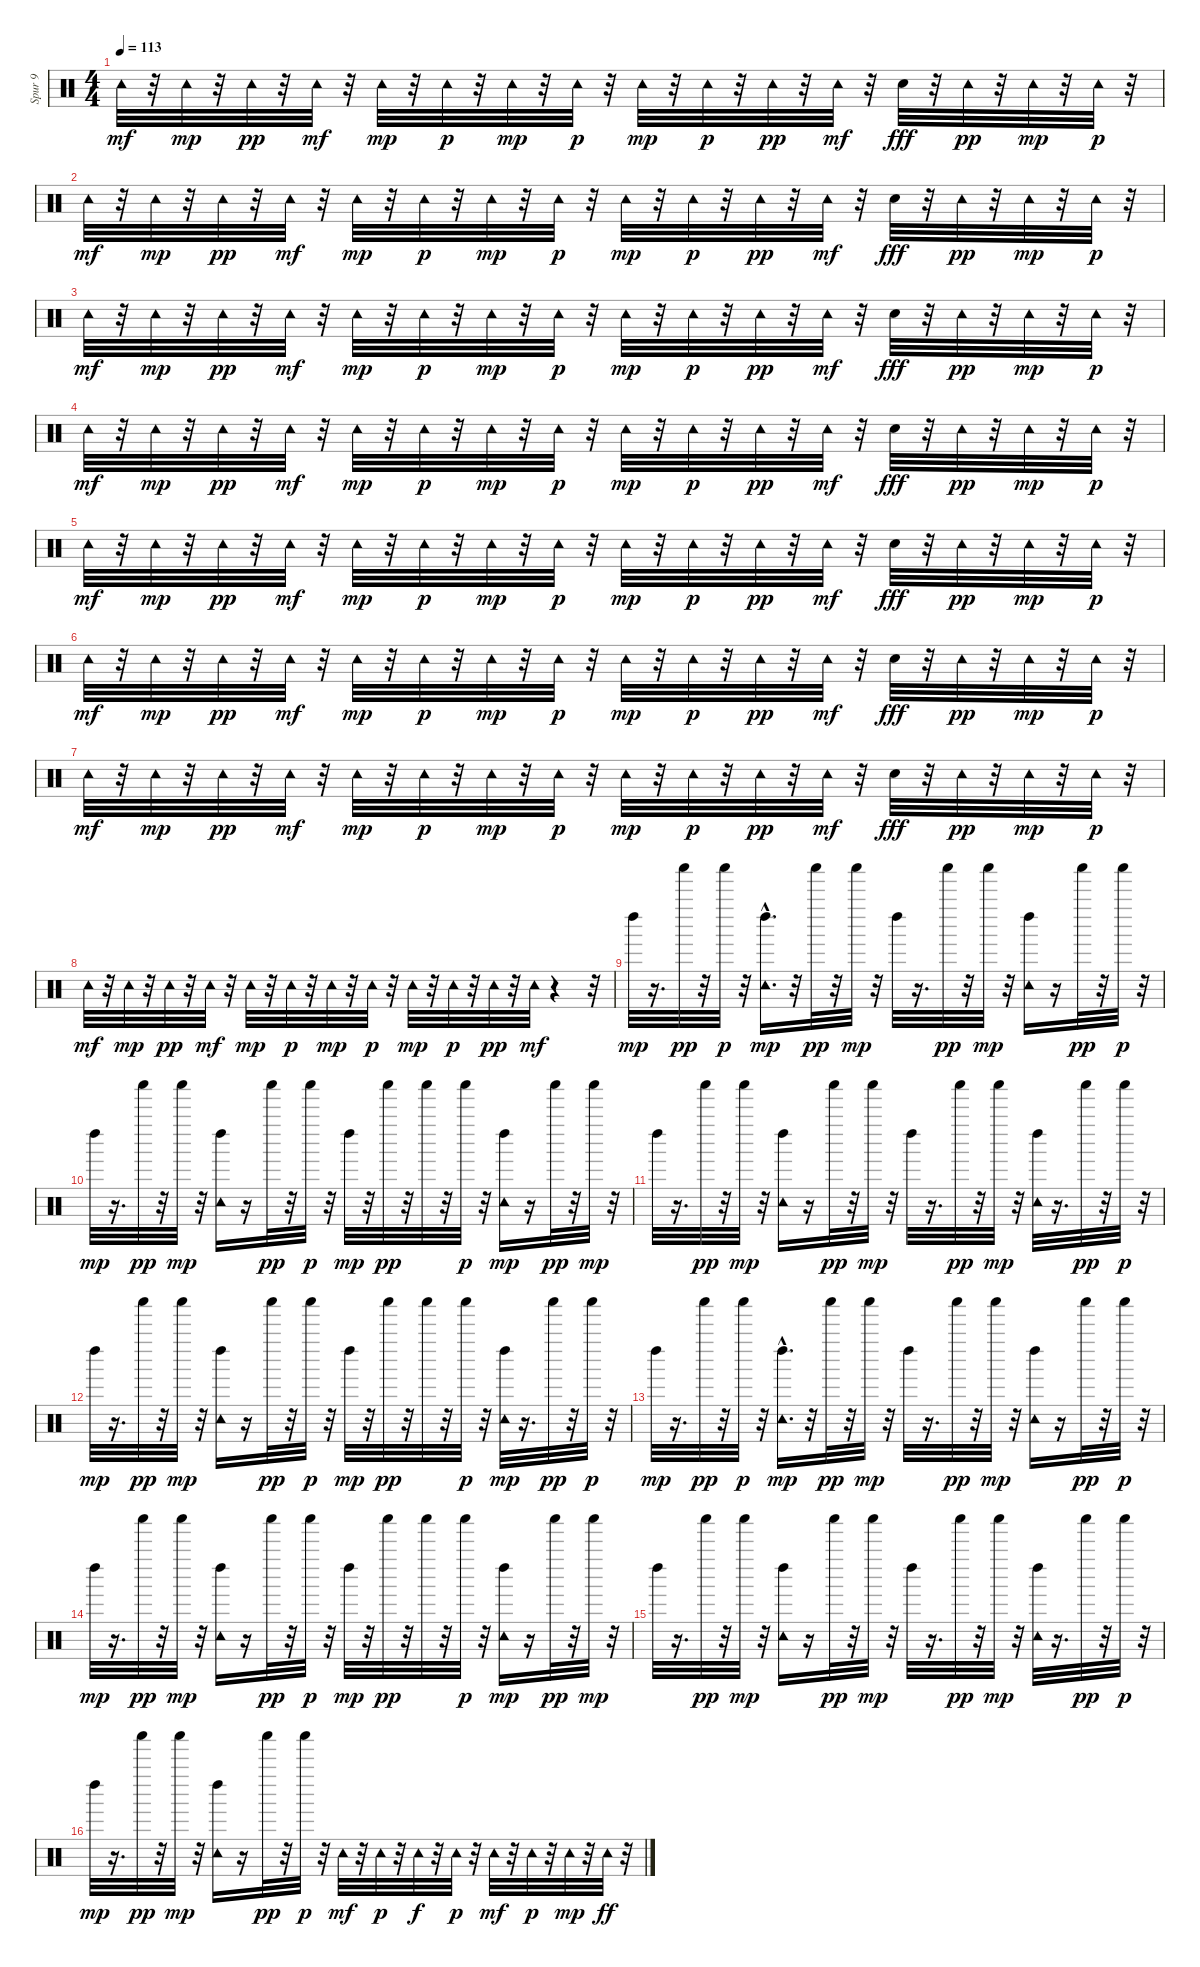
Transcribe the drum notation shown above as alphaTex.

\track ("Spur 9" "Spur 9") {instrument percussion}
\staff {score}
\articulation defaults
\ts (4 4)
\tempo 113
\clef neutral
\ks c "Tambourine (hit)".32{dy mf}
r.32 "Tambourine (hit)".32{dy mp} r.32 "Tambourine (hit)".32{dy pp} r.32 "Tambourine (hit)".32{dy mf} r.32 "Tambourine (hit)".32{dy mp} r.32 "Tambourine (hit)".32{dy p} r.32 "Tambourine (hit)".32{dy mp} r.32 "Tambourine (hit)".32{dy p} r.32 "Tambourine (hit)".32{dy mp} r.32 "Tambourine (hit)".32{dy p} r.32 "Tambourine (hit)".32{dy pp} r.32 "Tambourine (hit)".32{dy mf} r.32 "Hand Clap (hit)".32{dy fff} r.32 "Tambourine (hit)".32{dy pp} r.32 "Tambourine (hit)".32{dy mp} r.32 "Tambourine (hit)".32{dy p} r.32 |
"Tambourine (hit)".32{dy mf} r.32 "Tambourine (hit)".32{dy mp} r.32 "Tambourine (hit)".32{dy pp} r.32 "Tambourine (hit)".32{dy mf} r.32 "Tambourine (hit)".32{dy mp} r.32 "Tambourine (hit)".32{dy p} r.32 "Tambourine (hit)".32{dy mp} r.32 "Tambourine (hit)".32{dy p} r.32 "Tambourine (hit)".32{dy mp} r.32 "Tambourine (hit)".32{dy p} r.32 "Tambourine (hit)".32{dy pp} r.32 "Tambourine (hit)".32{dy mf} r.32 "Hand Clap (hit)".32{dy fff} r.32 "Tambourine (hit)".32{dy pp} r.32 "Tambourine (hit)".32{dy mp} r.32 "Tambourine (hit)".32{dy p} r.32 |
"Tambourine (hit)".32{dy mf} r.32 "Tambourine (hit)".32{dy mp} r.32 "Tambourine (hit)".32{dy pp} r.32 "Tambourine (hit)".32{dy mf} r.32 "Tambourine (hit)".32{dy mp} r.32 "Tambourine (hit)".32{dy p} r.32 "Tambourine (hit)".32{dy mp} r.32 "Tambourine (hit)".32{dy p} r.32 "Tambourine (hit)".32{dy mp} r.32 "Tambourine (hit)".32{dy p} r.32 "Tambourine (hit)".32{dy pp} r.32 "Tambourine (hit)".32{dy mf} r.32 "Hand Clap (hit)".32{dy fff} r.32 "Tambourine (hit)".32{dy pp} r.32 "Tambourine (hit)".32{dy mp} r.32 "Tambourine (hit)".32{dy p} r.32 |
"Tambourine (hit)".32{dy mf} r.32 "Tambourine (hit)".32{dy mp} r.32 "Tambourine (hit)".32{dy pp} r.32 "Tambourine (hit)".32{dy mf} r.32 "Tambourine (hit)".32{dy mp} r.32 "Tambourine (hit)".32{dy p} r.32 "Tambourine (hit)".32{dy mp} r.32 "Tambourine (hit)".32{dy p} r.32 "Tambourine (hit)".32{dy mp} r.32 "Tambourine (hit)".32{dy p} r.32 "Tambourine (hit)".32{dy pp} r.32 "Tambourine (hit)".32{dy mf} r.32 "Hand Clap (hit)".32{dy fff} r.32 "Tambourine (hit)".32{dy pp} r.32 "Tambourine (hit)".32{dy mp} r.32 "Tambourine (hit)".32{dy p} r.32 |
"Tambourine (hit)".32{dy mf} r.32 "Tambourine (hit)".32{dy mp} r.32 "Tambourine (hit)".32{dy pp} r.32 "Tambourine (hit)".32{dy mf} r.32 "Tambourine (hit)".32{dy mp} r.32 "Tambourine (hit)".32{dy p} r.32 "Tambourine (hit)".32{dy mp} r.32 "Tambourine (hit)".32{dy p} r.32 "Tambourine (hit)".32{dy mp} r.32 "Tambourine (hit)".32{dy p} r.32 "Tambourine (hit)".32{dy pp} r.32 "Tambourine (hit)".32{dy mf} r.32 "Hand Clap (hit)".32{dy fff} r.32 "Tambourine (hit)".32{dy pp} r.32 "Tambourine (hit)".32{dy mp} r.32 "Tambourine (hit)".32{dy p} r.32 |
"Tambourine (hit)".32{dy mf} r.32 "Tambourine (hit)".32{dy mp} r.32 "Tambourine (hit)".32{dy pp} r.32 "Tambourine (hit)".32{dy mf} r.32 "Tambourine (hit)".32{dy mp} r.32 "Tambourine (hit)".32{dy p} r.32 "Tambourine (hit)".32{dy mp} r.32 "Tambourine (hit)".32{dy p} r.32 "Tambourine (hit)".32{dy mp} r.32 "Tambourine (hit)".32{dy p} r.32 "Tambourine (hit)".32{dy pp} r.32 "Tambourine (hit)".32{dy mf} r.32 "Hand Clap (hit)".32{dy fff} r.32 "Tambourine (hit)".32{dy pp} r.32 "Tambourine (hit)".32{dy mp} r.32 "Tambourine (hit)".32{dy p} r.32 |
"Tambourine (hit)".32{dy mf} r.32 "Tambourine (hit)".32{dy mp} r.32 "Tambourine (hit)".32{dy pp} r.32 "Tambourine (hit)".32{dy mf} r.32 "Tambourine (hit)".32{dy mp} r.32 "Tambourine (hit)".32{dy p} r.32 "Tambourine (hit)".32{dy mp} r.32 "Tambourine (hit)".32{dy p} r.32 "Tambourine (hit)".32{dy mp} r.32 "Tambourine (hit)".32{dy p} r.32 "Tambourine (hit)".32{dy pp} r.32 "Tambourine (hit)".32{dy mf} r.32 "Hand Clap (hit)".32{dy fff} r.32 "Tambourine (hit)".32{dy pp} r.32 "Tambourine (hit)".32{dy mp} r.32 "Tambourine (hit)".32{dy p} r.32 |
"Tambourine (hit)".32{dy mf} r.32 "Tambourine (hit)".32{dy mp} r.32 "Tambourine (hit)".32{dy pp} r.32 "Tambourine (hit)".32{dy mf} r.32 "Tambourine (hit)".32{dy mp} r.32 "Tambourine (hit)".32{dy p} r.32 "Tambourine (hit)".32{dy mp} r.32 "Tambourine (hit)".32{dy p} r.32 "Tambourine (hit)".32{dy mp} r.32 "Tambourine (hit)".32{dy p} r.32 "Tambourine (hit)".32{dy pp} r.32 "Tambourine (hit)".32{dy mf} r.4 r.32 |
"Left Maraca (hit)".32{dy mp} r.16{d} "Shaker (hit)".32{dy pp} r.32 "Shaker (hit)".32{dy p} r.32 ("Tambourine (hit)"{hac} "Left Maraca (hit)").16{d dy mp} r.32 "Shaker (hit)".32{dy pp} r.32 "Shaker (hit)".32{dy mp} r.32 "Left Maraca (hit)".32 r.16{d} "Shaker (hit)".32{dy pp} r.32 "Shaker (hit)".32{dy mp} r.32 ("Tambourine (hit)" "Left Maraca (hit)").16 r.16 "Shaker (hit)".32{dy pp} r.32 "Shaker (hit)".32{dy p} r.32 |
"Left Maraca (hit)".32{dy mp} r.16{d} "Shaker (hit)".32{dy pp} r.32 "Shaker (hit)".32{dy mp} r.32 ("Tambourine (hit)" "Left Maraca (hit)").16 r.16 "Shaker (hit)".32{dy pp} r.32 "Shaker (hit)".32{dy p} r.32 "Left Maraca (hit)".32{dy mp} r.32 "Shaker (hit)".32{dy pp} r.32 "Shaker (hit)".32 r.32 "Shaker (hit)".32{dy p} r.32 ("Tambourine (hit)" "Left Maraca (hit)").16{dy mp} r.16 "Shaker (hit)".32{dy pp} r.32 "Shaker (hit)".32{dy mp} r.32 |
"Left Maraca (hit)".32 r.16{d} "Shaker (hit)".32{dy pp} r.32 "Shaker (hit)".32{dy mp} r.32 ("Tambourine (hit)" "Left Maraca (hit)").16 r.16 "Shaker (hit)".32{dy pp} r.32 "Shaker (hit)".32{dy mp} r.32 "Left Maraca (hit)".32 r.16{d} "Shaker (hit)".32{dy pp} r.32 "Shaker (hit)".32{dy mp} r.32 ("Tambourine (hit)" "Left Maraca (hit)").32 r.16{d} "Shaker (hit)".32{dy pp} r.32 "Shaker (hit)".32{dy p} r.32 |
"Left Maraca (hit)".32{dy mp} r.16{d} "Shaker (hit)".32{dy pp} r.32 "Shaker (hit)".32{dy mp} r.32 ("Tambourine (hit)" "Left Maraca (hit)").16 r.16 "Shaker (hit)".32{dy pp} r.32 "Shaker (hit)".32{dy p} r.32 "Left Maraca (hit)".32{dy mp} r.32 "Shaker (hit)".32{dy pp} r.32 "Shaker (hit)".32 r.32 "Shaker (hit)".32{dy p} r.32 ("Tambourine (hit)" "Left Maraca (hit)").32{dy mp} r.16{d} "Shaker (hit)".32{dy pp} r.32 "Shaker (hit)".32{dy p} r.32 |
"Left Maraca (hit)".32{dy mp} r.16{d} "Shaker (hit)".32{dy pp} r.32 "Shaker (hit)".32{dy p} r.32 ("Tambourine (hit)"{hac} "Left Maraca (hit)").16{d dy mp} r.32 "Shaker (hit)".32{dy pp} r.32 "Shaker (hit)".32{dy mp} r.32 "Left Maraca (hit)".32 r.16{d} "Shaker (hit)".32{dy pp} r.32 "Shaker (hit)".32{dy mp} r.32 ("Tambourine (hit)" "Left Maraca (hit)").16 r.16 "Shaker (hit)".32{dy pp} r.32 "Shaker (hit)".32{dy p} r.32 |
"Left Maraca (hit)".32{dy mp} r.16{d} "Shaker (hit)".32{dy pp} r.32 "Shaker (hit)".32{dy mp} r.32 ("Tambourine (hit)" "Left Maraca (hit)").16 r.16 "Shaker (hit)".32{dy pp} r.32 "Shaker (hit)".32{dy p} r.32 "Left Maraca (hit)".32{dy mp} r.32 "Shaker (hit)".32{dy pp} r.32 "Shaker (hit)".32 r.32 "Shaker (hit)".32{dy p} r.32 ("Tambourine (hit)" "Left Maraca (hit)").16{dy mp} r.16 "Shaker (hit)".32{dy pp} r.32 "Shaker (hit)".32{dy mp} r.32 |
"Left Maraca (hit)".32 r.16{d} "Shaker (hit)".32{dy pp} r.32 "Shaker (hit)".32{dy mp} r.32 ("Tambourine (hit)" "Left Maraca (hit)").16 r.16 "Shaker (hit)".32{dy pp} r.32 "Shaker (hit)".32{dy mp} r.32 "Left Maraca (hit)".32 r.16{d} "Shaker (hit)".32{dy pp} r.32 "Shaker (hit)".32{dy mp} r.32 ("Tambourine (hit)" "Left Maraca (hit)").32 r.16{d} "Shaker (hit)".32{dy pp} r.32 "Shaker (hit)".32{dy p} r.32 |
"Left Maraca (hit)".32{dy mp} r.16{d} "Shaker (hit)".32{dy pp} r.32 "Shaker (hit)".32{dy mp} r.32 ("Tambourine (hit)" "Left Maraca (hit)").16 r.16 "Shaker (hit)".32{dy pp} r.32 "Shaker (hit)".32{dy p} r.32 "Tambourine (hit)".32{dy mf} r.32 "Tambourine (hit)".32{dy p} r.32 "Tambourine (hit)".32{dy f} r.32 "Tambourine (hit)".32{dy p} r.32 "Tambourine (hit)".32{dy mf} r.32 "Tambourine (hit)".32{dy p} r.32 "Tambourine (hit)".32{dy mp} r.32 "Tambourine (hit)".32{dy ff} r.32
